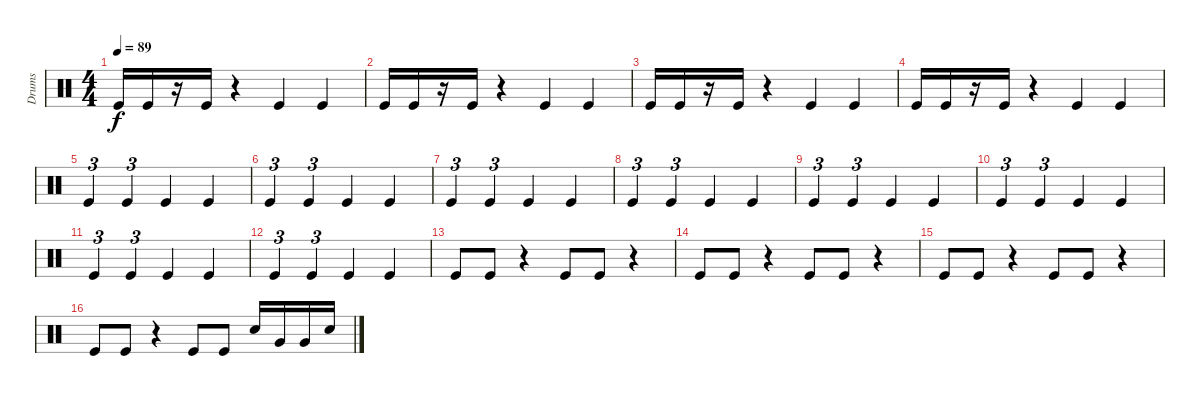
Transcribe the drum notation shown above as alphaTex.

\track ("Drums" "Drums") {instrument percussion}
\staff {score}
\articulation defaults
\ts (4 4)
\tempo 89
\clef neutral
\ks c "Kick (hit)".16{dy f} "Kick (hit)".16
r.16 "Kick (hit)".16 r.4 "Kick (hit)".4 "Kick (hit)".4 |
"Kick (hit)".16 "Kick (hit)".16 r.16 "Kick (hit)".16 r.4 "Kick (hit)".4 "Kick (hit)".4 |
"Kick (hit)".16 "Kick (hit)".16 r.16 "Kick (hit)".16 r.4 "Kick (hit)".4 "Kick (hit)".4 |
"Kick (hit)".16 "Kick (hit)".16 r.16 "Kick (hit)".16 r.4 "Kick (hit)".4 "Kick (hit)".4 |
"Kick (hit)".4{tu (3 2)} "Kick (hit)".4{tu (3 2)} "Kick (hit)".4 "Kick (hit)".4 |
"Kick (hit)".4{tu (3 2)} "Kick (hit)".4{tu (3 2)} "Kick (hit)".4 "Kick (hit)".4 |
"Kick (hit)".4{tu (3 2)} "Kick (hit)".4{tu (3 2)} "Kick (hit)".4 "Kick (hit)".4 |
"Kick (hit)".4{tu (3 2)} "Kick (hit)".4{tu (3 2)} "Kick (hit)".4 "Kick (hit)".4 |
"Kick (hit)".4{tu (3 2)} "Kick (hit)".4{tu (3 2)} "Kick (hit)".4 "Kick (hit)".4 |
"Kick (hit)".4{tu (3 2)} "Kick (hit)".4{tu (3 2)} "Kick (hit)".4 "Kick (hit)".4 |
"Kick (hit)".4{tu (3 2)} "Kick (hit)".4{tu (3 2)} "Kick (hit)".4 "Kick (hit)".4 |
"Kick (hit)".4{tu (3 2)} "Kick (hit)".4{tu (3 2)} "Kick (hit)".4 "Kick (hit)".4 |
"Kick (hit)".8 "Kick (hit)".8 r.4 "Kick (hit)".8 "Kick (hit)".8 r.4 |
"Kick (hit)".8 "Kick (hit)".8 r.4 "Kick (hit)".8 "Kick (hit)".8 r.4 |
"Kick (hit)".8 "Kick (hit)".8 r.4 "Kick (hit)".8 "Kick (hit)".8 r.4 |
"Kick (hit)".8 "Kick (hit)".8 r.4 "Kick (hit)".8 "Kick (hit)".8 "Electric Snare (hit)".16 "Very Low Tom (hit)".16 "Very Low Tom (hit)".16 "Electric Snare (hit)".16
